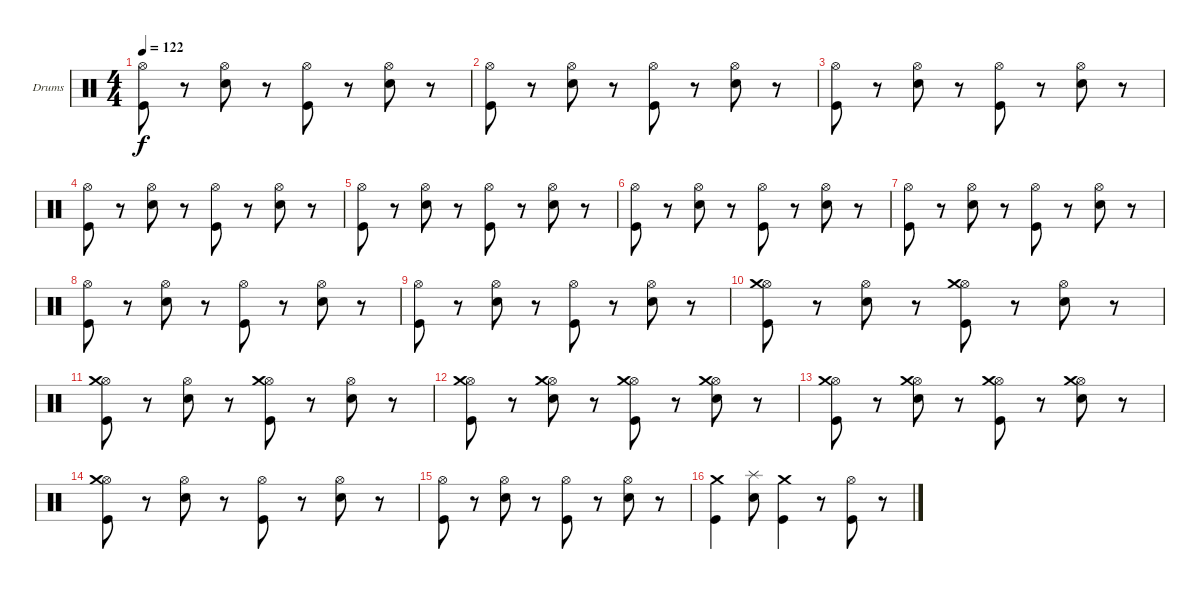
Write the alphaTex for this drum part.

\bracketExtendMode groupsimilarinstruments
\firstSystemTrackNameOrientation horizontal
\otherSystemsTrackNameOrientation horizontal
\track ("Drumkit" "Drums") {instrument percussion}
\staff {score}
\articulation defaults
\ts (4 4)
\tempo 122
\clef neutral
\ks c
("Kick (hit)" "Hi-Hat (open)").8{dy f} r.8 ("Snare (hit) 2" "Hi-Hat (open)").8 r.8 ("Kick (hit)" "Hi-Hat (open)").8 r.8 ("Snare (hit) 2" "Hi-Hat (open)").8 r.8 |
("Kick (hit)" "Hi-Hat (open)").8 r.8 ("Snare (hit) 2" "Hi-Hat (open)").8 r.8 ("Kick (hit)" "Hi-Hat (open)").8 r.8 ("Snare (hit) 2" "Hi-Hat (open)").8 r.8 |
("Kick (hit)" "Hi-Hat (open)").8 r.8 ("Snare (hit) 2" "Hi-Hat (open)").8 r.8 ("Kick (hit)" "Hi-Hat (open)").8 r.8 ("Snare (hit) 2" "Hi-Hat (open)").8 r.8 |
("Kick (hit)" "Hi-Hat (open)").8 r.8 ("Snare (hit) 2" "Hi-Hat (open)").8 r.8 ("Kick (hit)" "Hi-Hat (open)").8 r.8 ("Snare (hit) 2" "Hi-Hat (open)").8 r.8 |
("Kick (hit)" "Hi-Hat (open)").8 r.8 ("Snare (hit) 2" "Hi-Hat (open)").8 r.8 ("Kick (hit)" "Hi-Hat (open)").8 r.8 ("Snare (hit) 2" "Hi-Hat (open)").8 r.8 |
("Kick (hit)" "Hi-Hat (open)").8 r.8 ("Snare (hit) 2" "Hi-Hat (open)").8 r.8 ("Kick (hit)" "Hi-Hat (open)").8 r.8 ("Snare (hit) 2" "Hi-Hat (open)").8 r.8 |
("Kick (hit)" "Hi-Hat (open)").8 r.8 ("Snare (hit) 2" "Hi-Hat (open)").8 r.8 ("Kick (hit)" "Hi-Hat (open)").8 r.8 ("Snare (hit) 2" "Hi-Hat (open)").8 r.8 |
("Kick (hit)" "Hi-Hat (open)").8 r.8 ("Snare (hit) 2" "Hi-Hat (open)").8 r.8 ("Kick (hit)" "Hi-Hat (open)").8 r.8 ("Snare (hit) 2" "Hi-Hat (open)").8 r.8 |
("Kick (hit)" "Hi-Hat (open)").8 r.8 ("Snare (hit) 2" "Hi-Hat (open)").8 r.8 ("Kick (hit)" "Hi-Hat (open)").8 r.8 ("Snare (hit) 2" "Hi-Hat (open)").8 r.8 |
("Kick (hit)" "Hi-Hat (open)" "Crash medium (hit)").8 r.8 ("Snare (hit) 2" "Hi-Hat (open)").8 r.8 ("Kick (hit)" "Hi-Hat (open)" "Crash medium (hit)").8 r.8 ("Snare (hit) 2" "Hi-Hat (open)").8 r.8 |
("Kick (hit)" "Hi-Hat (open)" "Crash medium (hit)").8 r.8 ("Snare (hit) 2" "Hi-Hat (open)").8 r.8 ("Kick (hit)" "Hi-Hat (open)" "Crash medium (hit)").8 r.8 ("Snare (hit) 2" "Hi-Hat (open)").8 r.8 |
("Kick (hit)" "Hi-Hat (open)" "Crash medium (hit)").8 r.8 ("Snare (hit) 2" "Hi-Hat (open)" "Crash medium (hit)").8 r.8 ("Kick (hit)" "Hi-Hat (open)" "Crash medium (hit)").8 r.8 ("Snare (hit) 2" "Hi-Hat (open)" "Crash medium (hit)").8 r.8 |
("Kick (hit)" "Hi-Hat (open)" "Crash medium (hit)").8 r.8 ("Snare (hit) 2" "Hi-Hat (open)" "Crash medium (hit)").8 r.8 ("Kick (hit)" "Hi-Hat (open)" "Crash medium (hit)").8 r.8 ("Snare (hit) 2" "Hi-Hat (open)" "Crash medium (hit)").8 r.8 |
("Kick (hit)" "Hi-Hat (open)" "Crash medium (hit)").8 r.8 ("Snare (hit) 2" "Hi-Hat (open)").8 r.8 ("Kick (hit)" "Hi-Hat (open)").8 r.8 ("Snare (hit) 2" "Hi-Hat (open)").8 r.8 |
("Kick (hit)" "Hi-Hat (open)").8 r.8 ("Snare (hit) 2" "Hi-Hat (open)").8 r.8 ("Kick (hit)" "Hi-Hat (open)").8 r.8 ("Snare (hit) 2" "Hi-Hat (open)").8 r.8 |
("Kick (hit)" "Crash medium (hit)").4 ("Snare (hit) 2" "Splash (hit)").8 ("Kick (hit)" "Crash medium (hit)").4 r.8 ("Hi-Hat (open)" "Kick (hit)").8 r.8
